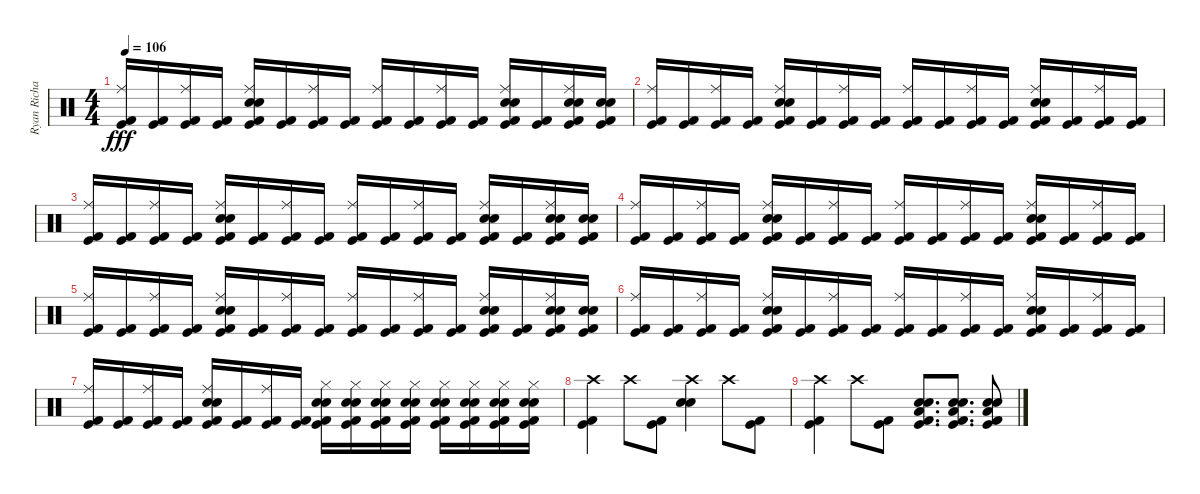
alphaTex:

\track ("Ryan Richards" "Ryan Richa") {instrument percussion}
\staff {score}
\articulation defaults
\ts (4 4)
\tempo 106
\clef neutral
\ks c
("Kick (hit)" "Ride (middle)" "Kick (hit) 2").16{dy fff} ("Kick (hit)" "Kick (hit) 2").16 ("Kick (hit)" "Ride (middle)" "Kick (hit) 2").16 ("Kick (hit)" "Kick (hit) 2").16 ("Kick (hit)" "Ride (middle)" "Snare (hit) 2" "Electric Snare (hit)" "Kick (hit) 2").16 ("Kick (hit)" "Kick (hit) 2").16 ("Kick (hit)" "Ride (middle)" "Kick (hit) 2").16 ("Kick (hit)" "Kick (hit) 2").16 ("Kick (hit)" "Ride (middle)" "Kick (hit) 2").16 ("Kick (hit)" "Kick (hit) 2").16 ("Kick (hit)" "Ride (middle)" "Kick (hit) 2").16 ("Kick (hit)" "Kick (hit) 2").16 ("Kick (hit)" "Ride (middle)" "Snare (hit) 2" "Electric Snare (hit)" "Kick (hit) 2").16 ("Kick (hit)" "Kick (hit) 2").16 ("Kick (hit)" "Ride (middle)" "Snare (hit) 2" "Electric Snare (hit)" "Kick (hit) 2").16 ("Kick (hit)" "Snare (hit) 2" "Electric Snare (hit)" "Kick (hit) 2").16 |
("Kick (hit)" "Ride (middle)" "Kick (hit) 2").16 ("Kick (hit)" "Kick (hit) 2").16 ("Kick (hit)" "Ride (middle)" "Kick (hit) 2").16 ("Kick (hit)" "Kick (hit) 2").16 ("Kick (hit)" "Ride (middle)" "Snare (hit) 2" "Electric Snare (hit)" "Kick (hit) 2").16 ("Kick (hit)" "Kick (hit) 2").16 ("Kick (hit)" "Ride (middle)" "Kick (hit) 2").16 ("Kick (hit)" "Kick (hit) 2").16 ("Kick (hit)" "Ride (middle)" "Kick (hit) 2").16 ("Kick (hit)" "Kick (hit) 2").16 ("Kick (hit)" "Ride (middle)" "Kick (hit) 2").16 ("Kick (hit)" "Kick (hit) 2").16 ("Kick (hit)" "Ride (middle)" "Snare (hit) 2" "Electric Snare (hit)" "Kick (hit) 2").16 ("Kick (hit)" "Kick (hit) 2").16 ("Kick (hit)" "Ride (middle)" "Kick (hit) 2").16 ("Kick (hit)" "Kick (hit) 2").16 |
("Kick (hit)" "Ride (middle)" "Kick (hit) 2").16 ("Kick (hit)" "Kick (hit) 2").16 ("Kick (hit)" "Ride (middle)" "Kick (hit) 2").16 ("Kick (hit)" "Kick (hit) 2").16 ("Kick (hit)" "Ride (middle)" "Snare (hit) 2" "Electric Snare (hit)" "Kick (hit) 2").16 ("Kick (hit)" "Kick (hit) 2").16 ("Kick (hit)" "Ride (middle)" "Kick (hit) 2").16 ("Kick (hit)" "Kick (hit) 2").16 ("Kick (hit)" "Ride (middle)" "Kick (hit) 2").16 ("Kick (hit)" "Kick (hit) 2").16 ("Kick (hit)" "Ride (middle)" "Kick (hit) 2").16 ("Kick (hit)" "Kick (hit) 2").16 ("Kick (hit)" "Ride (middle)" "Snare (hit) 2" "Electric Snare (hit)" "Kick (hit) 2").16 ("Kick (hit)" "Kick (hit) 2").16 ("Kick (hit)" "Ride (middle)" "Snare (hit) 2" "Electric Snare (hit)" "Kick (hit) 2").16 ("Kick (hit)" "Snare (hit) 2" "Electric Snare (hit)" "Kick (hit) 2").16 |
("Kick (hit)" "Ride (middle)" "Kick (hit) 2").16 ("Kick (hit)" "Kick (hit) 2").16 ("Kick (hit)" "Ride (middle)" "Kick (hit) 2").16 ("Kick (hit)" "Kick (hit) 2").16 ("Kick (hit)" "Ride (middle)" "Snare (hit) 2" "Electric Snare (hit)" "Kick (hit) 2").16 ("Kick (hit)" "Kick (hit) 2").16 ("Kick (hit)" "Ride (middle)" "Kick (hit) 2").16 ("Kick (hit)" "Kick (hit) 2").16 ("Kick (hit)" "Ride (middle)" "Kick (hit) 2").16 ("Kick (hit)" "Kick (hit) 2").16 ("Kick (hit)" "Ride (middle)" "Kick (hit) 2").16 ("Kick (hit)" "Kick (hit) 2").16 ("Kick (hit)" "Ride (middle)" "Snare (hit) 2" "Electric Snare (hit)" "Kick (hit) 2").16 ("Kick (hit)" "Kick (hit) 2").16 ("Kick (hit)" "Ride (middle)" "Kick (hit) 2").16 ("Kick (hit)" "Kick (hit) 2").16 |
("Kick (hit)" "Ride (middle)" "Kick (hit) 2").16 ("Kick (hit)" "Kick (hit) 2").16 ("Kick (hit)" "Ride (middle)" "Kick (hit) 2").16 ("Kick (hit)" "Kick (hit) 2").16 ("Kick (hit)" "Ride (middle)" "Snare (hit) 2" "Electric Snare (hit)" "Kick (hit) 2").16 ("Kick (hit)" "Kick (hit) 2").16 ("Kick (hit)" "Ride (middle)" "Kick (hit) 2").16 ("Kick (hit)" "Kick (hit) 2").16 ("Kick (hit)" "Ride (middle)" "Kick (hit) 2").16 ("Kick (hit)" "Kick (hit) 2").16 ("Kick (hit)" "Ride (middle)" "Kick (hit) 2").16 ("Kick (hit)" "Kick (hit) 2").16 ("Kick (hit)" "Ride (middle)" "Snare (hit) 2" "Electric Snare (hit)" "Kick (hit) 2").16 ("Kick (hit)" "Kick (hit) 2").16 ("Kick (hit)" "Ride (middle)" "Snare (hit) 2" "Electric Snare (hit)" "Kick (hit) 2").16 ("Kick (hit)" "Snare (hit) 2" "Electric Snare (hit)" "Kick (hit) 2").16 |
("Kick (hit)" "Ride (middle)" "Kick (hit) 2").16 ("Kick (hit)" "Kick (hit) 2").16 ("Kick (hit)" "Ride (middle)" "Kick (hit) 2").16 ("Kick (hit)" "Kick (hit) 2").16 ("Kick (hit)" "Ride (middle)" "Snare (hit) 2" "Electric Snare (hit)" "Kick (hit) 2").16 ("Kick (hit)" "Kick (hit) 2").16 ("Kick (hit)" "Ride (middle)" "Kick (hit) 2").16 ("Kick (hit)" "Kick (hit) 2").16 ("Kick (hit)" "Ride (middle)" "Kick (hit) 2").16 ("Kick (hit)" "Kick (hit) 2").16 ("Kick (hit)" "Ride (middle)" "Kick (hit) 2").16 ("Kick (hit)" "Kick (hit) 2").16 ("Kick (hit)" "Ride (middle)" "Snare (hit) 2" "Electric Snare (hit)" "Kick (hit) 2").16 ("Kick (hit)" "Kick (hit) 2").16 ("Kick (hit)" "Ride (middle)" "Kick (hit) 2").16 ("Kick (hit)" "Kick (hit) 2").16 |
("Kick (hit)" "Ride (middle)" "Kick (hit) 2").16 ("Kick (hit)" "Kick (hit) 2").16 ("Kick (hit)" "Ride (middle)" "Kick (hit) 2").16 ("Kick (hit)" "Kick (hit) 2").16 ("Kick (hit)" "Ride (middle)" "Snare (hit) 2" "Electric Snare (hit)" "Kick (hit) 2").16 ("Kick (hit)" "Kick (hit) 2").16 ("Kick (hit)" "Ride (middle)" "Kick (hit) 2").16 ("Kick (hit)" "Kick (hit) 2").16 ("Kick (hit)" "Hi-Hat (closed)" "Snare (hit) 2" "Electric Snare (hit)" "Kick (hit) 2").16 ("Kick (hit)" "Hi-Hat (closed)" "Snare (hit) 2" "Electric Snare (hit)" "Kick (hit) 2").16 ("Kick (hit)" "Hi-Hat (closed)" "Snare (hit) 2" "Electric Snare (hit)" "Kick (hit) 2").16 ("Kick (hit)" "Hi-Hat (closed)" "Snare (hit) 2" "Electric Snare (hit)" "Kick (hit) 2").16 ("Kick (hit)" "Hi-Hat (closed)" "Snare (hit) 2" "Electric Snare (hit)" "Kick (hit) 2").16 ("Kick (hit)" "Hi-Hat (closed)" "Snare (hit) 2" "Electric Snare (hit)" "Kick (hit) 2").16 ("Kick (hit)" "Hi-Hat (closed)" "Snare (hit) 2" "Electric Snare (hit)" "Kick (hit) 2").16 ("Kick (hit)" "Hi-Hat (closed)" "Snare (hit) 2" "Electric Snare (hit)" "Kick (hit) 2").16 |
("Kick (hit)" "Crash high (hit)" "Kick (hit) 2").4 "Crash high (hit)".8 ("Kick (hit)" "Kick (hit) 2").8 ("Crash high (hit)" "Snare (hit) 2" "Electric Snare (hit)").4 "Crash high (hit)".8 ("Kick (hit)" "Kick (hit) 2").8 |
("Kick (hit)" "Crash high (hit)" "Kick (hit) 2").4 "Crash high (hit)".8 ("Kick (hit)" "Kick (hit) 2").8 ("Kick (hit)" "Low Floor Tom (hit)" "Snare (hit) 2" "Electric Snare (hit)" "Kick (hit) 2").8{d} ("Kick (hit)" "Low Floor Tom (hit)" "Snare (hit) 2" "Electric Snare (hit)" "Kick (hit) 2").8{d} ("Kick (hit)" "Low Floor Tom (hit)" "Snare (hit) 2" "Electric Snare (hit)" "Kick (hit) 2").8
